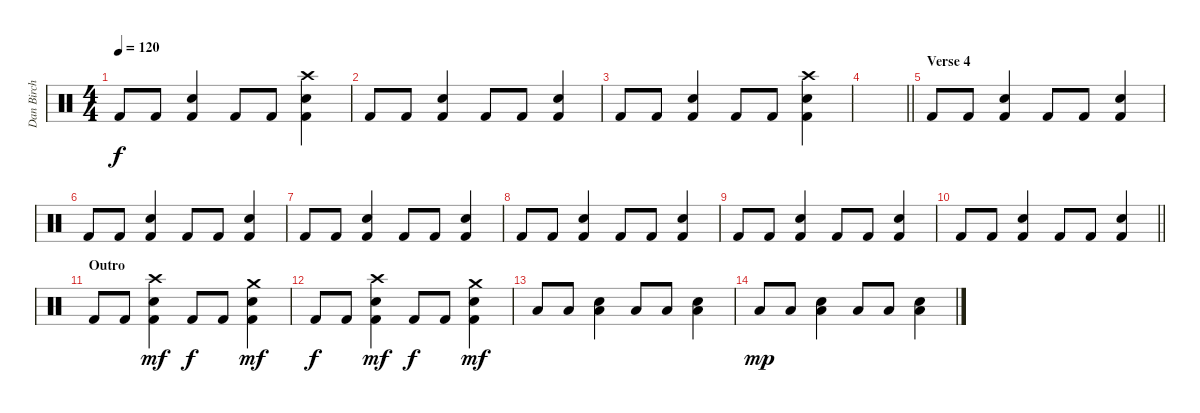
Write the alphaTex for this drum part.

\track ("Dan Birch" "Dan Birch") {instrument percussion}
\staff {score}
\articulation defaults
\ts (4 4)
\tempo 120
\clef neutral
\ks c "Kick (hit) 2".8{dy f} "Kick (hit) 2".8
("Snare (hit) 2" "Kick (hit) 2").4 "Kick (hit) 2".8 "Kick (hit) 2".8 ("Crash high (hit)" "Snare (hit) 2" "Kick (hit) 2").4 |
"Kick (hit) 2".8 "Kick (hit) 2".8 ("Snare (hit) 2" "Kick (hit) 2").4 "Kick (hit) 2".8 "Kick (hit) 2".8 ("Snare (hit) 2" "Kick (hit) 2").4 |
"Kick (hit) 2".8 "Kick (hit) 2".8 ("Snare (hit) 2" "Kick (hit) 2").4 "Kick (hit) 2".8 "Kick (hit) 2".8 ("Crash high (hit)" "Snare (hit) 2" "Kick (hit) 2").4 |
\barLineRight lightlight
|
\section ("" "Verse 4")
"Kick (hit) 2".8 "Kick (hit) 2".8 ("Snare (hit) 2" "Kick (hit) 2").4 "Kick (hit) 2".8 "Kick (hit) 2".8 ("Snare (hit) 2" "Kick (hit) 2").4 |
"Kick (hit) 2".8 "Kick (hit) 2".8 ("Snare (hit) 2" "Kick (hit) 2").4 "Kick (hit) 2".8 "Kick (hit) 2".8 ("Snare (hit) 2" "Kick (hit) 2").4 |
"Kick (hit) 2".8 "Kick (hit) 2".8 ("Snare (hit) 2" "Kick (hit) 2").4 "Kick (hit) 2".8 "Kick (hit) 2".8 ("Snare (hit) 2" "Kick (hit) 2").4 |
"Kick (hit) 2".8 "Kick (hit) 2".8 ("Snare (hit) 2" "Kick (hit) 2").4 "Kick (hit) 2".8 "Kick (hit) 2".8 ("Snare (hit) 2" "Kick (hit) 2").4 |
"Kick (hit) 2".8 "Kick (hit) 2".8 ("Snare (hit) 2" "Kick (hit) 2").4 "Kick (hit) 2".8 "Kick (hit) 2".8 ("Snare (hit) 2" "Kick (hit) 2").4 |
\barLineRight lightlight "Kick (hit) 2".8 "Kick (hit) 2".8
("Snare (hit) 2" "Kick (hit) 2").4 "Kick (hit) 2".8 "Kick (hit) 2".8 ("Snare (hit) 2" "Kick (hit) 2").4 |
\section ("" "Outro")
"Kick (hit) 2".8 "Kick (hit) 2".8 ("Crash high (hit)" "Snare (hit) 2" "Kick (hit) 2").4{dy mf} "Kick (hit) 2".8{dy f} "Kick (hit) 2".8 ("Crash medium (hit)" "Snare (hit) 2" "Kick (hit) 2").4{dy mf} |
"Kick (hit) 2".8{dy f} "Kick (hit) 2".8 ("Crash high (hit)" "Snare (hit) 2" "Kick (hit) 2").4{dy mf} "Kick (hit) 2".8{dy f} "Kick (hit) 2".8 ("Crash medium (hit)" "Snare (hit) 2" "Kick (hit) 2").4{dy mf} |
"Low Tom (hit)".8 "Low Tom (hit)".8 ("Snare (hit) 2" "Low Tom (hit)").4 "Low Tom (hit)".8 "Low Tom (hit)".8 ("Snare (hit) 2" "Low Tom (hit)").4 |
"Low Tom (hit)".8{dy mp} "Low Tom (hit)".8 ("Snare (hit) 2" "Low Tom (hit)").4 "Low Tom (hit)".8 "Low Tom (hit)".8 ("Snare (hit) 2" "Low Tom (hit)").4
